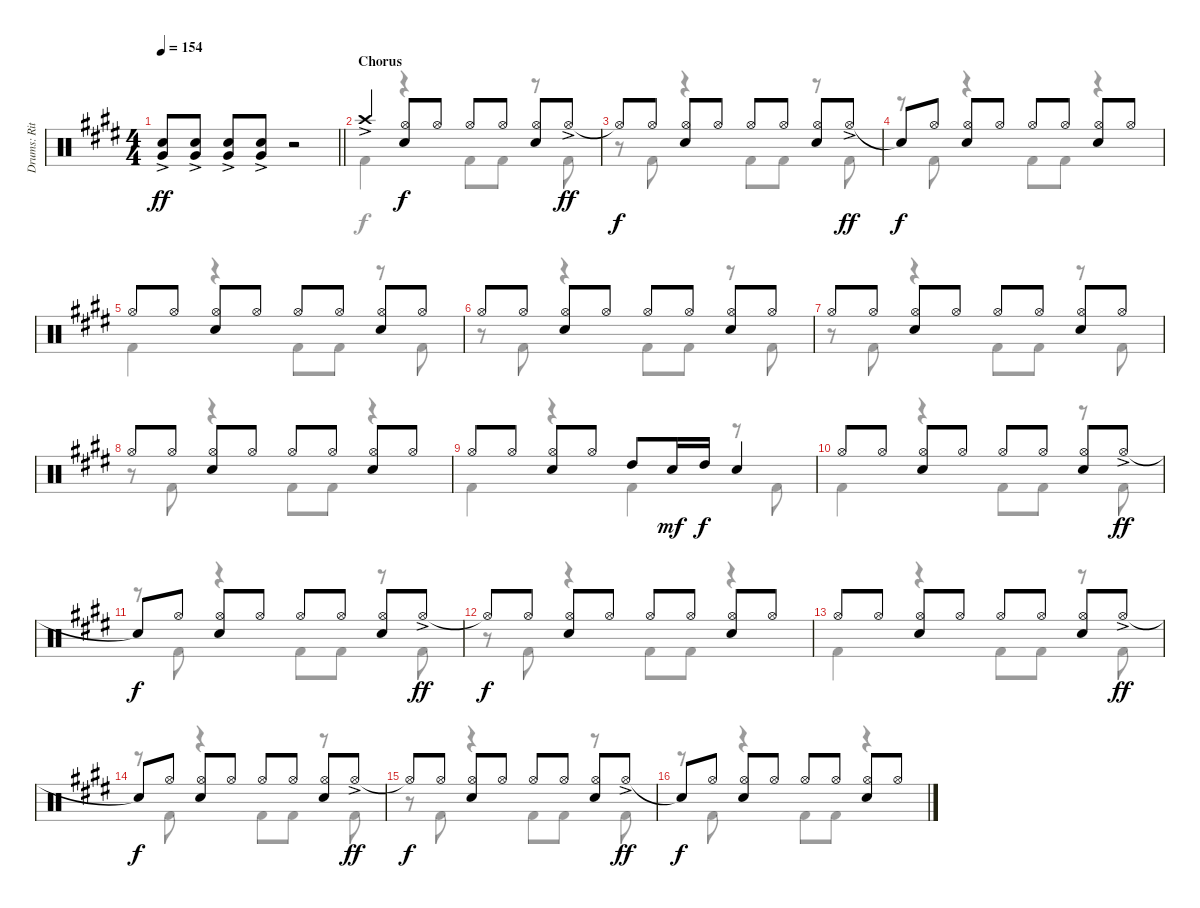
\track ("Drums: Ritsu Tainaka" "Drums: Rit") {instrument percussion}
\staff {score}
\articulation defaults
\voice
\ts (4 4)
\tempo 154
\clef neutral
\barLineRight lightlight
\ks e
("Electric Snare (hit)"{ac} "Very Low Tom (hit)"{ac}).8{dy ff} ("Electric Snare (hit)"{ac} "Very Low Tom (hit)"{ac}).8 ("Electric Snare (hit)"{ac} "Very Low Tom (hit)"{ac}).8 ("Electric Snare (hit)"{ac} "Very Low Tom (hit)"{ac}).8 r.2 |
\section ("" "Chorus")
"Crash high (hit)"{ac}.4 ("Hi-Hat (open)" "Electric Snare (hit)").8{dy f} "Hi-Hat (open)".8 "Hi-Hat (open)".8 "Hi-Hat (open)".8 ("Hi-Hat (open)" "Electric Snare (hit)").8 "Hi-Hat (open)"{ac}.8{dy ff} |
"Hi-Hat (open)"{t}.8{dy f} "Hi-Hat (open)".8 ("Hi-Hat (open)" "Electric Snare (hit)").8 "Hi-Hat (open)".8 "Hi-Hat (open)".8 "Hi-Hat (open)".8 ("Hi-Hat (open)" "Electric Snare (hit)").8 "Hi-Hat (open)"{ac}.8{dy ff} |
"Snare (hit)"{t}.8{dy f} "Hi-Hat (open)".8 ("Hi-Hat (open)" "Electric Snare (hit)").8 "Hi-Hat (open)".8 "Hi-Hat (open)".8 "Hi-Hat (open)".8 ("Hi-Hat (open)" "Electric Snare (hit)").8 "Hi-Hat (open)".8 |
"Hi-Hat (open)".8 "Hi-Hat (open)".8 ("Hi-Hat (open)" "Electric Snare (hit)").8 "Hi-Hat (open)".8 "Hi-Hat (open)".8 "Hi-Hat (open)".8 ("Hi-Hat (open)" "Electric Snare (hit)").8 "Hi-Hat (open)".8 |
"Hi-Hat (open)".8 "Hi-Hat (open)".8 ("Hi-Hat (open)" "Electric Snare (hit)").8 "Hi-Hat (open)".8 "Hi-Hat (open)".8 "Hi-Hat (open)".8 ("Hi-Hat (open)" "Electric Snare (hit)").8 "Hi-Hat (open)".8 |
"Hi-Hat (open)".8 "Hi-Hat (open)".8 ("Hi-Hat (open)" "Electric Snare (hit)").8 "Hi-Hat (open)".8 "Hi-Hat (open)".8 "Hi-Hat (open)".8 ("Hi-Hat (open)" "Electric Snare (hit)").8 "Hi-Hat (open)".8 |
"Hi-Hat (open)".8 "Hi-Hat (open)".8 ("Hi-Hat (open)" "Electric Snare (hit)").8 "Hi-Hat (open)".8 "Hi-Hat (open)".8 "Hi-Hat (open)".8 ("Hi-Hat (open)" "Electric Snare (hit)").8 "Hi-Hat (open)".8 |
"Hi-Hat (open)".8 "Hi-Hat (open)".8 ("Hi-Hat (open)" "Electric Snare (hit)").8 "Hi-Hat (open)".8 "High Tom (hit)".8 "Electric Snare (hit)".16{dy mf} "High Tom (hit)".16{dy f} "Electric Snare (hit)".4 |
"Hi-Hat (open)".8 "Hi-Hat (open)".8 ("Hi-Hat (open)" "Electric Snare (hit)").8 "Hi-Hat (open)".8 "Hi-Hat (open)".8 "Hi-Hat (open)".8 ("Hi-Hat (open)" "Electric Snare (hit)").8 "Hi-Hat (open)"{ac}.8{dy ff} |
"Snare (hit)"{t}.8{dy f} "Hi-Hat (open)".8 ("Hi-Hat (open)" "Electric Snare (hit)").8 "Hi-Hat (open)".8 "Hi-Hat (open)".8 "Hi-Hat (open)".8 ("Hi-Hat (open)" "Electric Snare (hit)").8 "Hi-Hat (open)"{ac}.8{dy ff} |
"Hi-Hat (open)"{t}.8{dy f} "Hi-Hat (open)".8 ("Hi-Hat (open)" "Electric Snare (hit)").8 "Hi-Hat (open)".8 "Hi-Hat (open)".8 "Hi-Hat (open)".8 ("Hi-Hat (open)" "Electric Snare (hit)").8 "Hi-Hat (open)".8 |
"Hi-Hat (open)".8 "Hi-Hat (open)".8 ("Hi-Hat (open)" "Electric Snare (hit)").8 "Hi-Hat (open)".8 "Hi-Hat (open)".8 "Hi-Hat (open)".8 ("Hi-Hat (open)" "Electric Snare (hit)").8 "Hi-Hat (open)"{ac}.8{dy ff} |
"Snare (hit)"{t}.8{dy f} "Hi-Hat (open)".8 ("Hi-Hat (open)" "Electric Snare (hit)").8 "Hi-Hat (open)".8 "Hi-Hat (open)".8 "Hi-Hat (open)".8 ("Hi-Hat (open)" "Electric Snare (hit)").8 "Hi-Hat (open)"{ac}.8{dy ff} |
"Hi-Hat (open)"{t}.8{dy f} "Hi-Hat (open)".8 ("Hi-Hat (open)" "Electric Snare (hit)").8 "Hi-Hat (open)".8 "Hi-Hat (open)".8 "Hi-Hat (open)".8 ("Hi-Hat (open)" "Electric Snare (hit)").8 "Hi-Hat (open)"{ac}.8{dy ff} |
"Snare (hit)"{t}.8{dy f} "Hi-Hat (open)".8 ("Hi-Hat (open)" "Electric Snare (hit)").8 "Hi-Hat (open)".8 "Hi-Hat (open)".8 "Hi-Hat (open)".8 ("Hi-Hat (open)" "Electric Snare (hit)").8 "Hi-Hat (open)".8
\voice
\clef neutral
\ottava regular
\simile none
\barLineRight lightlight
\ks e
|
"Kick (hit) 2".4 r.4 "Kick (hit) 2".8 "Kick (hit) 2".8 r.8 "Kick (hit) 2".8 |
r.8 "Kick (hit) 2".8 r.4 "Kick (hit) 2".8 "Kick (hit) 2".8 r.8 "Kick (hit) 2".8 |
r.8 "Kick (hit) 2".8 r.4 "Kick (hit) 2".8 "Kick (hit) 2".8 r.4 |
"Kick (hit) 2".4 r.4 "Kick (hit) 2".8 "Kick (hit) 2".8 r.8 "Kick (hit) 2".8 |
r.8 "Kick (hit) 2".8 r.4 "Kick (hit) 2".8 "Kick (hit) 2".8 r.8 "Kick (hit) 2".8 |
r.8 "Kick (hit) 2".8 r.4 "Kick (hit) 2".8 "Kick (hit) 2".8 r.8 "Kick (hit) 2".8 |
r.8 "Kick (hit) 2".8 r.4 "Kick (hit) 2".8 "Kick (hit) 2".8 r.4 |
"Kick (hit) 2".4 r.4 "Kick (hit) 2".4 r.8 "Kick (hit) 2".8 |
"Kick (hit) 2".4 r.4 "Kick (hit) 2".8 "Kick (hit) 2".8 r.8 "Kick (hit) 2".8 |
r.8 "Kick (hit) 2".8 r.4 "Kick (hit) 2".8 "Kick (hit) 2".8 r.8 "Kick (hit) 2".8 |
r.8 "Kick (hit) 2".8 r.4 "Kick (hit) 2".8 "Kick (hit) 2".8 r.4 |
"Kick (hit) 2".4 r.4 "Kick (hit) 2".8 "Kick (hit) 2".8 r.8 "Kick (hit) 2".8 |
r.8 "Kick (hit) 2".8 r.4 "Kick (hit) 2".8 "Kick (hit) 2".8 r.8 "Kick (hit) 2".8 |
r.8 "Kick (hit) 2".8 r.4 "Kick (hit) 2".8 "Kick (hit) 2".8 r.8 "Kick (hit) 2".8 |
r.8 "Kick (hit) 2".8 r.4 "Kick (hit) 2".8 "Kick (hit) 2".8 r.4
